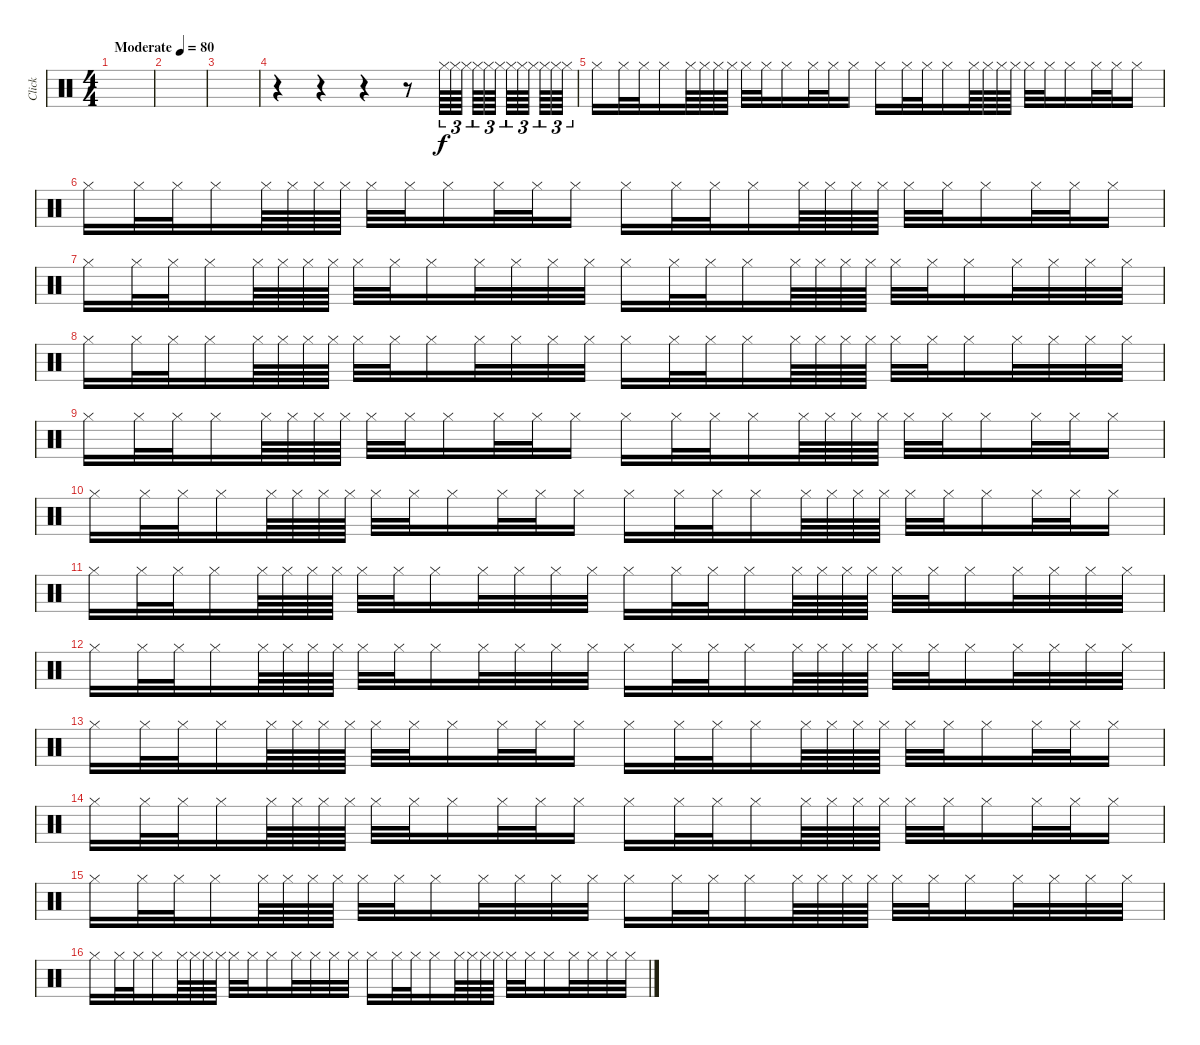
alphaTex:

\track ("Click" "Click") {instrument percussion}
\staff {score}
\articulation defaults
\ts (4 4)
\tempo (80 "Moderate")
\clef neutral
\ks c
|
|
|
r.4 r.4 r.4 r.8 "Hi-Hat (closed)".64{tu (3 2)} "Hi-Hat (closed)".64{tu (3 2)} "Hi-Hat (closed)".64{tu (3 2) beam splitsecondary} "Hi-Hat (closed)".64{tu (3 2)} "Hi-Hat (closed)".64{tu (3 2)} "Hi-Hat (closed)".64{tu (3 2) beam splitsecondary} "Hi-Hat (closed)".64{tu (3 2)} "Hi-Hat (closed)".64{tu (3 2)} "Hi-Hat (closed)".64{tu (3 2) beam splitsecondary} "Hi-Hat (closed)".64{tu (3 2)} "Hi-Hat (closed)".64{tu (3 2)} "Hi-Hat (closed)".64{tu (3 2)} |
"Hi-Hat (closed)".16 "Hi-Hat (closed)".32 "Hi-Hat (closed)".32 "Hi-Hat (closed)".16 "Hi-Hat (closed)".64 "Hi-Hat (closed)".64 "Hi-Hat (closed)".64 "Hi-Hat (closed)".64 "Hi-Hat (closed)".32 "Hi-Hat (closed)".32 "Hi-Hat (closed)".16 "Hi-Hat (closed)".32 "Hi-Hat (closed)".32 "Hi-Hat (closed)".16 "Hi-Hat (closed)".16 "Hi-Hat (closed)".32 "Hi-Hat (closed)".32 "Hi-Hat (closed)".16 "Hi-Hat (closed)".64 "Hi-Hat (closed)".64 "Hi-Hat (closed)".64 "Hi-Hat (closed)".64 "Hi-Hat (closed)".32 "Hi-Hat (closed)".32 "Hi-Hat (closed)".16 "Hi-Hat (closed)".32 "Hi-Hat (closed)".32 "Hi-Hat (closed)".16 |
"Hi-Hat (closed)".16 "Hi-Hat (closed)".32 "Hi-Hat (closed)".32 "Hi-Hat (closed)".16 "Hi-Hat (closed)".64 "Hi-Hat (closed)".64 "Hi-Hat (closed)".64 "Hi-Hat (closed)".64 "Hi-Hat (closed)".32 "Hi-Hat (closed)".32 "Hi-Hat (closed)".16 "Hi-Hat (closed)".32 "Hi-Hat (closed)".32 "Hi-Hat (closed)".16 "Hi-Hat (closed)".16 "Hi-Hat (closed)".32 "Hi-Hat (closed)".32 "Hi-Hat (closed)".16 "Hi-Hat (closed)".64 "Hi-Hat (closed)".64 "Hi-Hat (closed)".64 "Hi-Hat (closed)".64 "Hi-Hat (closed)".32 "Hi-Hat (closed)".32 "Hi-Hat (closed)".16 "Hi-Hat (closed)".32 "Hi-Hat (closed)".32 "Hi-Hat (closed)".16 |
"Hi-Hat (closed)".16 "Hi-Hat (closed)".32 "Hi-Hat (closed)".32 "Hi-Hat (closed)".16 "Hi-Hat (closed)".64 "Hi-Hat (closed)".64 "Hi-Hat (closed)".64 "Hi-Hat (closed)".64 "Hi-Hat (closed)".32 "Hi-Hat (closed)".32 "Hi-Hat (closed)".16 "Hi-Hat (closed)".32 "Hi-Hat (closed)".32 "Hi-Hat (closed)".32 "Hi-Hat (closed)".32 "Hi-Hat (closed)".16 "Hi-Hat (closed)".32 "Hi-Hat (closed)".32 "Hi-Hat (closed)".16 "Hi-Hat (closed)".64 "Hi-Hat (closed)".64 "Hi-Hat (closed)".64 "Hi-Hat (closed)".64 "Hi-Hat (closed)".32 "Hi-Hat (closed)".32 "Hi-Hat (closed)".16 "Hi-Hat (closed)".32 "Hi-Hat (closed)".32 "Hi-Hat (closed)".32 "Hi-Hat (closed)".32 |
"Hi-Hat (closed)".16 "Hi-Hat (closed)".32 "Hi-Hat (closed)".32 "Hi-Hat (closed)".16 "Hi-Hat (closed)".64 "Hi-Hat (closed)".64 "Hi-Hat (closed)".64 "Hi-Hat (closed)".64 "Hi-Hat (closed)".32 "Hi-Hat (closed)".32 "Hi-Hat (closed)".16 "Hi-Hat (closed)".32 "Hi-Hat (closed)".32 "Hi-Hat (closed)".32 "Hi-Hat (closed)".32 "Hi-Hat (closed)".16 "Hi-Hat (closed)".32 "Hi-Hat (closed)".32 "Hi-Hat (closed)".16 "Hi-Hat (closed)".64 "Hi-Hat (closed)".64 "Hi-Hat (closed)".64 "Hi-Hat (closed)".64 "Hi-Hat (closed)".32 "Hi-Hat (closed)".32 "Hi-Hat (closed)".16 "Hi-Hat (closed)".32 "Hi-Hat (closed)".32 "Hi-Hat (closed)".32 "Hi-Hat (closed)".32 |
"Hi-Hat (closed)".16 "Hi-Hat (closed)".32 "Hi-Hat (closed)".32 "Hi-Hat (closed)".16 "Hi-Hat (closed)".64 "Hi-Hat (closed)".64 "Hi-Hat (closed)".64 "Hi-Hat (closed)".64 "Hi-Hat (closed)".32 "Hi-Hat (closed)".32 "Hi-Hat (closed)".16 "Hi-Hat (closed)".32 "Hi-Hat (closed)".32 "Hi-Hat (closed)".16 "Hi-Hat (closed)".16 "Hi-Hat (closed)".32 "Hi-Hat (closed)".32 "Hi-Hat (closed)".16 "Hi-Hat (closed)".64 "Hi-Hat (closed)".64 "Hi-Hat (closed)".64 "Hi-Hat (closed)".64 "Hi-Hat (closed)".32 "Hi-Hat (closed)".32 "Hi-Hat (closed)".16 "Hi-Hat (closed)".32 "Hi-Hat (closed)".32 "Hi-Hat (closed)".16 |
"Hi-Hat (closed)".16 "Hi-Hat (closed)".32 "Hi-Hat (closed)".32 "Hi-Hat (closed)".16 "Hi-Hat (closed)".64 "Hi-Hat (closed)".64 "Hi-Hat (closed)".64 "Hi-Hat (closed)".64 "Hi-Hat (closed)".32 "Hi-Hat (closed)".32 "Hi-Hat (closed)".16 "Hi-Hat (closed)".32 "Hi-Hat (closed)".32 "Hi-Hat (closed)".16 "Hi-Hat (closed)".16 "Hi-Hat (closed)".32 "Hi-Hat (closed)".32 "Hi-Hat (closed)".16 "Hi-Hat (closed)".64 "Hi-Hat (closed)".64 "Hi-Hat (closed)".64 "Hi-Hat (closed)".64 "Hi-Hat (closed)".32 "Hi-Hat (closed)".32 "Hi-Hat (closed)".16 "Hi-Hat (closed)".32 "Hi-Hat (closed)".32 "Hi-Hat (closed)".16 |
"Hi-Hat (closed)".16 "Hi-Hat (closed)".32 "Hi-Hat (closed)".32 "Hi-Hat (closed)".16 "Hi-Hat (closed)".64 "Hi-Hat (closed)".64 "Hi-Hat (closed)".64 "Hi-Hat (closed)".64 "Hi-Hat (closed)".32 "Hi-Hat (closed)".32 "Hi-Hat (closed)".16 "Hi-Hat (closed)".32 "Hi-Hat (closed)".32 "Hi-Hat (closed)".32 "Hi-Hat (closed)".32 "Hi-Hat (closed)".16 "Hi-Hat (closed)".32 "Hi-Hat (closed)".32 "Hi-Hat (closed)".16 "Hi-Hat (closed)".64 "Hi-Hat (closed)".64 "Hi-Hat (closed)".64 "Hi-Hat (closed)".64 "Hi-Hat (closed)".32 "Hi-Hat (closed)".32 "Hi-Hat (closed)".16 "Hi-Hat (closed)".32 "Hi-Hat (closed)".32 "Hi-Hat (closed)".32 "Hi-Hat (closed)".32 |
"Hi-Hat (closed)".16 "Hi-Hat (closed)".32 "Hi-Hat (closed)".32 "Hi-Hat (closed)".16 "Hi-Hat (closed)".64 "Hi-Hat (closed)".64 "Hi-Hat (closed)".64 "Hi-Hat (closed)".64 "Hi-Hat (closed)".32 "Hi-Hat (closed)".32 "Hi-Hat (closed)".16 "Hi-Hat (closed)".32 "Hi-Hat (closed)".32 "Hi-Hat (closed)".32 "Hi-Hat (closed)".32 "Hi-Hat (closed)".16 "Hi-Hat (closed)".32 "Hi-Hat (closed)".32 "Hi-Hat (closed)".16 "Hi-Hat (closed)".64 "Hi-Hat (closed)".64 "Hi-Hat (closed)".64 "Hi-Hat (closed)".64 "Hi-Hat (closed)".32 "Hi-Hat (closed)".32 "Hi-Hat (closed)".16 "Hi-Hat (closed)".32 "Hi-Hat (closed)".32 "Hi-Hat (closed)".32 "Hi-Hat (closed)".32 |
"Hi-Hat (closed)".16 "Hi-Hat (closed)".32 "Hi-Hat (closed)".32 "Hi-Hat (closed)".16 "Hi-Hat (closed)".64 "Hi-Hat (closed)".64 "Hi-Hat (closed)".64 "Hi-Hat (closed)".64 "Hi-Hat (closed)".32 "Hi-Hat (closed)".32 "Hi-Hat (closed)".16 "Hi-Hat (closed)".32 "Hi-Hat (closed)".32 "Hi-Hat (closed)".16 "Hi-Hat (closed)".16 "Hi-Hat (closed)".32 "Hi-Hat (closed)".32 "Hi-Hat (closed)".16 "Hi-Hat (closed)".64 "Hi-Hat (closed)".64 "Hi-Hat (closed)".64 "Hi-Hat (closed)".64 "Hi-Hat (closed)".32 "Hi-Hat (closed)".32 "Hi-Hat (closed)".16 "Hi-Hat (closed)".32 "Hi-Hat (closed)".32 "Hi-Hat (closed)".16 |
"Hi-Hat (closed)".16 "Hi-Hat (closed)".32 "Hi-Hat (closed)".32 "Hi-Hat (closed)".16 "Hi-Hat (closed)".64 "Hi-Hat (closed)".64 "Hi-Hat (closed)".64 "Hi-Hat (closed)".64 "Hi-Hat (closed)".32 "Hi-Hat (closed)".32 "Hi-Hat (closed)".16 "Hi-Hat (closed)".32 "Hi-Hat (closed)".32 "Hi-Hat (closed)".16 "Hi-Hat (closed)".16 "Hi-Hat (closed)".32 "Hi-Hat (closed)".32 "Hi-Hat (closed)".16 "Hi-Hat (closed)".64 "Hi-Hat (closed)".64 "Hi-Hat (closed)".64 "Hi-Hat (closed)".64 "Hi-Hat (closed)".32 "Hi-Hat (closed)".32 "Hi-Hat (closed)".16 "Hi-Hat (closed)".32 "Hi-Hat (closed)".32 "Hi-Hat (closed)".16 |
"Hi-Hat (closed)".16 "Hi-Hat (closed)".32 "Hi-Hat (closed)".32 "Hi-Hat (closed)".16 "Hi-Hat (closed)".64 "Hi-Hat (closed)".64 "Hi-Hat (closed)".64 "Hi-Hat (closed)".64 "Hi-Hat (closed)".32 "Hi-Hat (closed)".32 "Hi-Hat (closed)".16 "Hi-Hat (closed)".32 "Hi-Hat (closed)".32 "Hi-Hat (closed)".32 "Hi-Hat (closed)".32 "Hi-Hat (closed)".16 "Hi-Hat (closed)".32 "Hi-Hat (closed)".32 "Hi-Hat (closed)".16 "Hi-Hat (closed)".64 "Hi-Hat (closed)".64 "Hi-Hat (closed)".64 "Hi-Hat (closed)".64 "Hi-Hat (closed)".32 "Hi-Hat (closed)".32 "Hi-Hat (closed)".16 "Hi-Hat (closed)".32 "Hi-Hat (closed)".32 "Hi-Hat (closed)".32 "Hi-Hat (closed)".32 |
"Hi-Hat (closed)".16 "Hi-Hat (closed)".32 "Hi-Hat (closed)".32 "Hi-Hat (closed)".16 "Hi-Hat (closed)".64 "Hi-Hat (closed)".64 "Hi-Hat (closed)".64 "Hi-Hat (closed)".64 "Hi-Hat (closed)".32 "Hi-Hat (closed)".32 "Hi-Hat (closed)".16 "Hi-Hat (closed)".32 "Hi-Hat (closed)".32 "Hi-Hat (closed)".32 "Hi-Hat (closed)".32 "Hi-Hat (closed)".16 "Hi-Hat (closed)".32 "Hi-Hat (closed)".32 "Hi-Hat (closed)".16 "Hi-Hat (closed)".64 "Hi-Hat (closed)".64 "Hi-Hat (closed)".64 "Hi-Hat (closed)".64 "Hi-Hat (closed)".32 "Hi-Hat (closed)".32 "Hi-Hat (closed)".16 "Hi-Hat (closed)".32 "Hi-Hat (closed)".32 "Hi-Hat (closed)".32 "Hi-Hat (closed)".32
